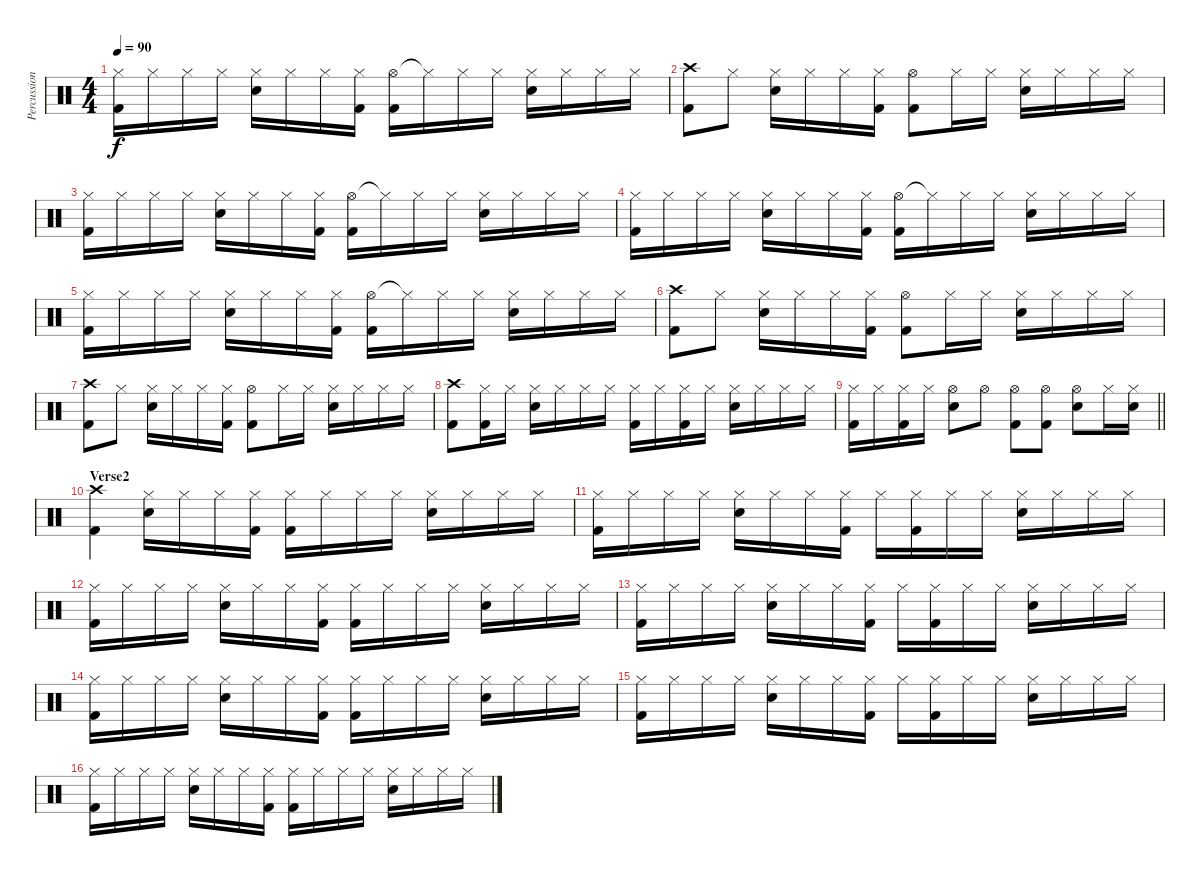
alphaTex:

\track ("Percussion" "Percussion") {instrument percussion}
\staff {score}
\articulation defaults
\ts (4 4)
\tempo 90
\clef neutral
\ks c
("Hi-Hat (closed)" "Kick (hit) 2").16{dy f} "Hi-Hat (closed)".16 "Hi-Hat (closed)".16 "Hi-Hat (closed)".16 ("Hi-Hat (closed)" "Electric Snare (hit)").16 "Hi-Hat (closed)".16 "Hi-Hat (closed)".16 ("Hi-Hat (closed)" "Kick (hit) 2").16 ("Hi-Hat (open)" "Kick (hit) 2").16 "Hi-Hat (closed)"{t}.16 "Hi-Hat (closed)".16 "Hi-Hat (closed)".16 ("Hi-Hat (closed)" "Electric Snare (hit)").16 "Hi-Hat (closed)".16 "Hi-Hat (closed)".16 "Hi-Hat (closed)".16 |
("Crash high (hit)" "Kick (hit) 2").8 "Hi-Hat (closed)".8 ("Hi-Hat (closed)" "Electric Snare (hit)").16 "Hi-Hat (closed)".16 "Hi-Hat (closed)".16 ("Hi-Hat (closed)" "Kick (hit) 2").16 ("Hi-Hat (open)" "Kick (hit) 2").8 "Hi-Hat (closed)".16 "Hi-Hat (closed)".16 ("Hi-Hat (closed)" "Electric Snare (hit)").16 "Hi-Hat (closed)".16 "Hi-Hat (closed)".16 "Hi-Hat (closed)".16 |
("Hi-Hat (closed)" "Kick (hit) 2").16 "Hi-Hat (closed)".16 "Hi-Hat (closed)".16 "Hi-Hat (closed)".16 ("Hi-Hat (closed)" "Electric Snare (hit)").16 "Hi-Hat (closed)".16 "Hi-Hat (closed)".16 ("Hi-Hat (closed)" "Kick (hit) 2").16 ("Hi-Hat (open)" "Kick (hit) 2").16 "Hi-Hat (closed)"{t}.16 "Hi-Hat (closed)".16 "Hi-Hat (closed)".16 ("Hi-Hat (closed)" "Electric Snare (hit)").16 "Hi-Hat (closed)".16 "Hi-Hat (closed)".16 "Hi-Hat (closed)".16 |
("Hi-Hat (closed)" "Kick (hit) 2").16 "Hi-Hat (closed)".16 "Hi-Hat (closed)".16 "Hi-Hat (closed)".16 ("Hi-Hat (closed)" "Electric Snare (hit)").16 "Hi-Hat (closed)".16 "Hi-Hat (closed)".16 ("Hi-Hat (closed)" "Kick (hit) 2").16 ("Hi-Hat (open)" "Kick (hit) 2").16 "Hi-Hat (closed)"{t}.16 "Hi-Hat (closed)".16 "Hi-Hat (closed)".16 ("Hi-Hat (closed)" "Electric Snare (hit)").16 "Hi-Hat (closed)".16 "Hi-Hat (closed)".16 "Hi-Hat (closed)".16 |
("Hi-Hat (closed)" "Kick (hit) 2").16 "Hi-Hat (closed)".16 "Hi-Hat (closed)".16 "Hi-Hat (closed)".16 ("Hi-Hat (closed)" "Electric Snare (hit)").16 "Hi-Hat (closed)".16 "Hi-Hat (closed)".16 ("Hi-Hat (closed)" "Kick (hit) 2").16 ("Hi-Hat (open)" "Kick (hit) 2").16 "Hi-Hat (closed)"{t}.16 "Hi-Hat (closed)".16 "Hi-Hat (closed)".16 ("Hi-Hat (closed)" "Electric Snare (hit)").16 "Hi-Hat (closed)".16 "Hi-Hat (closed)".16 "Hi-Hat (closed)".16 |
("Crash high (hit)" "Kick (hit) 2").8 "Hi-Hat (closed)".8 ("Hi-Hat (closed)" "Electric Snare (hit)").16 "Hi-Hat (closed)".16 "Hi-Hat (closed)".16 ("Hi-Hat (closed)" "Kick (hit) 2").16 ("Hi-Hat (open)" "Kick (hit) 2").8 "Hi-Hat (closed)".16 "Hi-Hat (closed)".16 ("Hi-Hat (closed)" "Electric Snare (hit)").16 "Hi-Hat (closed)".16 "Hi-Hat (closed)".16 "Hi-Hat (closed)".16 |
("Crash high (hit)" "Kick (hit) 2").8 "Hi-Hat (closed)".8 ("Hi-Hat (closed)" "Electric Snare (hit)").16 "Hi-Hat (closed)".16 "Hi-Hat (closed)".16 ("Hi-Hat (closed)" "Kick (hit) 2").16 ("Hi-Hat (open)" "Kick (hit) 2").8 "Hi-Hat (closed)".16 "Hi-Hat (closed)".16 ("Hi-Hat (closed)" "Electric Snare (hit)").16 "Hi-Hat (closed)".16 "Hi-Hat (closed)".16 "Hi-Hat (closed)".16 |
("Crash high (hit)" "Kick (hit) 2").8 ("Hi-Hat (closed)" "Kick (hit) 2").16 "Hi-Hat (closed)".16 ("Hi-Hat (closed)" "Electric Snare (hit)").16 "Hi-Hat (closed)".16 "Hi-Hat (closed)".16 "Hi-Hat (closed)".16 ("Hi-Hat (closed)" "Kick (hit) 2").16 "Hi-Hat (closed)".16 ("Hi-Hat (closed)" "Kick (hit) 2").16 "Hi-Hat (closed)".16 ("Hi-Hat (closed)" "Electric Snare (hit)").16 "Hi-Hat (closed)".16 "Hi-Hat (closed)".16 "Hi-Hat (closed)".16 |
\barLineRight lightlight
("Hi-Hat (closed)" "Kick (hit) 2").16 "Hi-Hat (closed)".16 ("Hi-Hat (closed)" "Kick (hit) 2").16 "Hi-Hat (closed)".16 ("Hi-Hat (open)" "Electric Snare (hit)").8 "Hi-Hat (open)".8 ("Hi-Hat (open)" "Kick (hit) 2").8 ("Hi-Hat (open)" "Kick (hit) 2").8 ("Hi-Hat (open)" "Electric Snare (hit)").8 "Hi-Hat (closed)".16 ("Hi-Hat (closed)" "Electric Snare (hit)").16 |
\section ("" "Verse2")
("Crash high (hit)" "Kick (hit) 2").4 ("Hi-Hat (closed)" "Electric Snare (hit)").16 "Hi-Hat (closed)".16 "Hi-Hat (closed)".16 ("Hi-Hat (closed)" "Kick (hit) 2").16 ("Hi-Hat (closed)" "Kick (hit) 2").16 "Hi-Hat (closed)".16 "Hi-Hat (closed)".16 "Hi-Hat (closed)".16 ("Hi-Hat (closed)" "Electric Snare (hit)").16 "Hi-Hat (closed)".16 "Hi-Hat (closed)".16 "Hi-Hat (closed)".16 |
("Hi-Hat (closed)" "Kick (hit) 2").16 "Hi-Hat (closed)".16 "Hi-Hat (closed)".16 "Hi-Hat (closed)".16 ("Hi-Hat (closed)" "Electric Snare (hit)").16 "Hi-Hat (closed)".16 "Hi-Hat (closed)".16 ("Hi-Hat (closed)" "Kick (hit) 2").16 "Hi-Hat (closed)".16 ("Hi-Hat (closed)" "Kick (hit) 2").16 "Hi-Hat (closed)".16 "Hi-Hat (closed)".16 ("Hi-Hat (closed)" "Electric Snare (hit)").16 "Hi-Hat (closed)".16 "Hi-Hat (closed)".16 "Hi-Hat (closed)".16 |
("Hi-Hat (closed)" "Kick (hit) 2").16 "Hi-Hat (closed)".16 "Hi-Hat (closed)".16 "Hi-Hat (closed)".16 ("Hi-Hat (closed)" "Electric Snare (hit)").16 "Hi-Hat (closed)".16 "Hi-Hat (closed)".16 ("Hi-Hat (closed)" "Kick (hit) 2").16 ("Hi-Hat (closed)" "Kick (hit) 2").16 "Hi-Hat (closed)".16 "Hi-Hat (closed)".16 "Hi-Hat (closed)".16 ("Hi-Hat (closed)" "Electric Snare (hit)").16 "Hi-Hat (closed)".16 "Hi-Hat (closed)".16 "Hi-Hat (closed)".16 |
("Hi-Hat (closed)" "Kick (hit) 2").16 "Hi-Hat (closed)".16 "Hi-Hat (closed)".16 "Hi-Hat (closed)".16 ("Hi-Hat (closed)" "Electric Snare (hit)").16 "Hi-Hat (closed)".16 "Hi-Hat (closed)".16 ("Hi-Hat (closed)" "Kick (hit) 2").16 "Hi-Hat (closed)".16 ("Hi-Hat (closed)" "Kick (hit) 2").16 "Hi-Hat (closed)".16 "Hi-Hat (closed)".16 ("Hi-Hat (closed)" "Electric Snare (hit)").16 "Hi-Hat (closed)".16 "Hi-Hat (closed)".16 "Hi-Hat (closed)".16 |
("Hi-Hat (closed)" "Kick (hit) 2").16 "Hi-Hat (closed)".16 "Hi-Hat (closed)".16 "Hi-Hat (closed)".16 ("Hi-Hat (closed)" "Electric Snare (hit)").16 "Hi-Hat (closed)".16 "Hi-Hat (closed)".16 ("Hi-Hat (closed)" "Kick (hit) 2").16 ("Hi-Hat (closed)" "Kick (hit) 2").16 "Hi-Hat (closed)".16 "Hi-Hat (closed)".16 "Hi-Hat (closed)".16 ("Hi-Hat (closed)" "Electric Snare (hit)").16 "Hi-Hat (closed)".16 "Hi-Hat (closed)".16 "Hi-Hat (closed)".16 |
("Hi-Hat (closed)" "Kick (hit) 2").16 "Hi-Hat (closed)".16 "Hi-Hat (closed)".16 "Hi-Hat (closed)".16 ("Hi-Hat (closed)" "Electric Snare (hit)").16 "Hi-Hat (closed)".16 "Hi-Hat (closed)".16 ("Hi-Hat (closed)" "Kick (hit) 2").16 "Hi-Hat (closed)".16 ("Hi-Hat (closed)" "Kick (hit) 2").16 "Hi-Hat (closed)".16 "Hi-Hat (closed)".16 ("Hi-Hat (closed)" "Electric Snare (hit)").16 "Hi-Hat (closed)".16 "Hi-Hat (closed)".16 "Hi-Hat (closed)".16 |
("Hi-Hat (closed)" "Kick (hit) 2").16 "Hi-Hat (closed)".16 "Hi-Hat (closed)".16 "Hi-Hat (closed)".16 ("Hi-Hat (closed)" "Electric Snare (hit)").16 "Hi-Hat (closed)".16 "Hi-Hat (closed)".16 ("Hi-Hat (closed)" "Kick (hit) 2").16 ("Hi-Hat (closed)" "Kick (hit) 2").16 "Hi-Hat (closed)".16 "Hi-Hat (closed)".16 "Hi-Hat (closed)".16 ("Hi-Hat (closed)" "Electric Snare (hit)").16 "Hi-Hat (closed)".16 "Hi-Hat (closed)".16 "Hi-Hat (closed)".16
